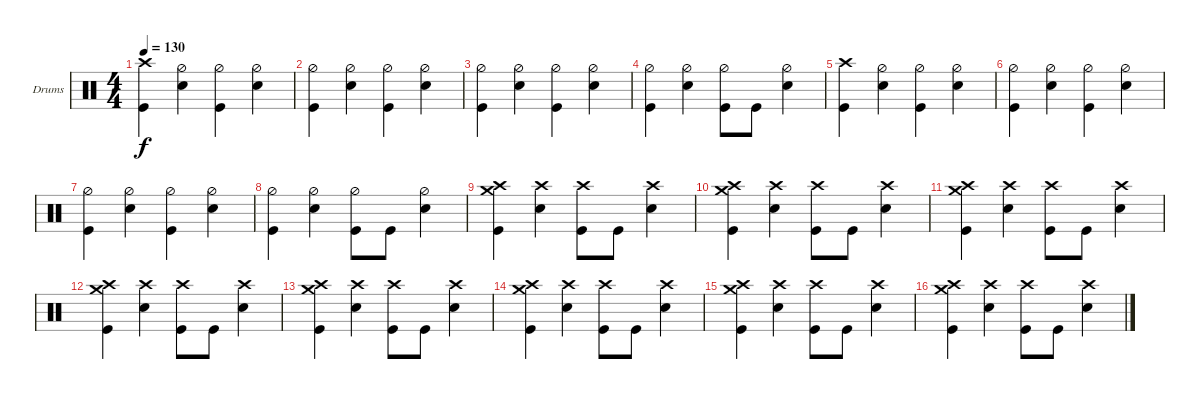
\bracketExtendMode groupsimilarinstruments
\firstSystemTrackNameOrientation horizontal
\otherSystemsTrackNameOrientation horizontal
\track ("Drumkit" "Drums") {instrument percussion}
\staff {score}
\articulation defaults
\ts (4 4)
\tempo 130
\clef neutral
\ks c
("Kick (hit)" "Crash high (hit)").4{dy f} ("Snare (hit) 2" "Hi-Hat (half)").4 ("Kick (hit)" "Hi-Hat (half)").4 ("Snare (hit) 2" "Hi-Hat (half)").4 |
("Kick (hit)" "Hi-Hat (half)").4 ("Snare (hit) 2" "Hi-Hat (half)").4 ("Kick (hit)" "Hi-Hat (half)").4 ("Snare (hit) 2" "Hi-Hat (half)").4 |
("Kick (hit)" "Hi-Hat (half)").4 ("Snare (hit) 2" "Hi-Hat (half)").4 ("Kick (hit)" "Hi-Hat (half)").4 ("Snare (hit) 2" "Hi-Hat (half)").4 |
("Kick (hit)" "Hi-Hat (half)").4 ("Snare (hit) 2" "Hi-Hat (half)").4 ("Kick (hit)" "Hi-Hat (half)").8 "Kick (hit)".8 ("Hi-Hat (half)" "Snare (hit) 2").4 |
("Kick (hit)" "Crash high (hit)").4 ("Snare (hit) 2" "Hi-Hat (half)").4 ("Kick (hit)" "Hi-Hat (half)").4 ("Snare (hit) 2" "Hi-Hat (half)").4 |
("Kick (hit)" "Hi-Hat (half)").4 ("Snare (hit) 2" "Hi-Hat (half)").4 ("Kick (hit)" "Hi-Hat (half)").4 ("Snare (hit) 2" "Hi-Hat (half)").4 |
("Kick (hit)" "Hi-Hat (half)").4 ("Snare (hit) 2" "Hi-Hat (half)").4 ("Kick (hit)" "Hi-Hat (half)").4 ("Snare (hit) 2" "Hi-Hat (half)").4 |
("Kick (hit)" "Hi-Hat (half)").4 ("Snare (hit) 2" "Hi-Hat (half)").4 ("Kick (hit)" "Hi-Hat (half)").8 "Kick (hit)".8 ("Hi-Hat (half)" "Snare (hit) 2").4 |
("Kick (hit)" "Crash high (hit)" "Crash medium (hit)").4 ("Snare (hit) 2" "Crash high (hit)").4 ("Kick (hit)" "Crash high (hit)").8 "Kick (hit)".8 ("Snare (hit) 2" "Crash high (hit)").4 |
("Kick (hit)" "Crash high (hit)" "Crash medium (hit)").4 ("Snare (hit) 2" "Crash high (hit)").4 ("Kick (hit)" "Crash high (hit)").8 "Kick (hit)".8 ("Snare (hit) 2" "Crash high (hit)").4 |
("Kick (hit)" "Crash high (hit)" "Crash medium (hit)").4 ("Snare (hit) 2" "Crash high (hit)").4 ("Kick (hit)" "Crash high (hit)").8 "Kick (hit)".8 ("Snare (hit) 2" "Crash high (hit)").4 |
("Kick (hit)" "Crash high (hit)" "Crash medium (hit)").4 ("Snare (hit) 2" "Crash high (hit)").4 ("Kick (hit)" "Crash high (hit)").8 "Kick (hit)".8 ("Snare (hit) 2" "Crash high (hit)").4 |
("Kick (hit)" "Crash high (hit)" "Crash medium (hit)").4 ("Snare (hit) 2" "Crash high (hit)").4 ("Kick (hit)" "Crash high (hit)").8 "Kick (hit)".8 ("Snare (hit) 2" "Crash high (hit)").4 |
("Kick (hit)" "Crash high (hit)" "Crash medium (hit)").4 ("Snare (hit) 2" "Crash high (hit)").4 ("Kick (hit)" "Crash high (hit)").8 "Kick (hit)".8 ("Snare (hit) 2" "Crash high (hit)").4 |
("Kick (hit)" "Crash high (hit)" "Crash medium (hit)").4 ("Snare (hit) 2" "Crash high (hit)").4 ("Kick (hit)" "Crash high (hit)").8 "Kick (hit)".8 ("Snare (hit) 2" "Crash high (hit)").4 |
("Kick (hit)" "Crash high (hit)" "Crash medium (hit)").4 ("Snare (hit) 2" "Crash high (hit)").4 ("Kick (hit)" "Crash high (hit)").8 "Kick (hit)".8 ("Snare (hit) 2" "Crash high (hit)").4
